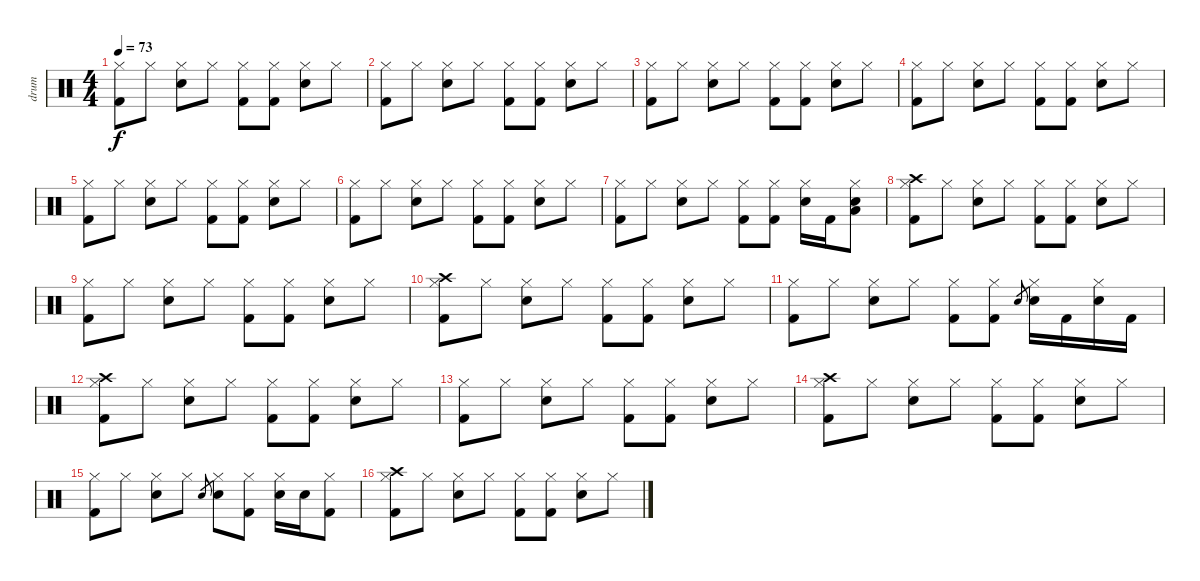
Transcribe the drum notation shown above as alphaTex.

\track ("drum" "drum") {instrument percussion}
\staff {score}
\articulation defaults
\ts (4 4)
\tempo 73
\clef neutral
\ks c
("Hi-Hat (closed)" "Kick (hit) 2").8{dy f} "Hi-Hat (closed)".8 ("Hi-Hat (closed)" "Electric Snare (hit)").8 "Hi-Hat (closed)".8 ("Hi-Hat (closed)" "Kick (hit) 2").8 ("Hi-Hat (closed)" "Kick (hit) 2").8 ("Hi-Hat (closed)" "Electric Snare (hit)").8 "Hi-Hat (closed)".8 |
("Hi-Hat (closed)" "Kick (hit) 2").8 "Hi-Hat (closed)".8 ("Hi-Hat (closed)" "Electric Snare (hit)").8 "Hi-Hat (closed)".8 ("Hi-Hat (closed)" "Kick (hit) 2").8 ("Hi-Hat (closed)" "Kick (hit) 2").8 ("Hi-Hat (closed)" "Electric Snare (hit)").8 "Hi-Hat (closed)".8 |
("Hi-Hat (closed)" "Kick (hit) 2").8 "Hi-Hat (closed)".8 ("Hi-Hat (closed)" "Electric Snare (hit)").8 "Hi-Hat (closed)".8 ("Hi-Hat (closed)" "Kick (hit) 2").8 ("Hi-Hat (closed)" "Kick (hit) 2").8 ("Hi-Hat (closed)" "Electric Snare (hit)").8 "Hi-Hat (closed)".8 |
("Hi-Hat (closed)" "Kick (hit) 2").8 "Hi-Hat (closed)".8 ("Hi-Hat (closed)" "Electric Snare (hit)").8 "Hi-Hat (closed)".8 ("Hi-Hat (closed)" "Kick (hit) 2").8 ("Hi-Hat (closed)" "Kick (hit) 2").8 ("Hi-Hat (closed)" "Electric Snare (hit)").8 "Hi-Hat (closed)".8 |
("Hi-Hat (closed)" "Kick (hit) 2").8 "Hi-Hat (closed)".8 ("Hi-Hat (closed)" "Electric Snare (hit)").8 "Hi-Hat (closed)".8 ("Hi-Hat (closed)" "Kick (hit) 2").8 ("Hi-Hat (closed)" "Kick (hit) 2").8 ("Hi-Hat (closed)" "Electric Snare (hit)").8 "Hi-Hat (closed)".8 |
("Hi-Hat (closed)" "Kick (hit) 2").8 "Hi-Hat (closed)".8 ("Hi-Hat (closed)" "Electric Snare (hit)").8 "Hi-Hat (closed)".8 ("Hi-Hat (closed)" "Kick (hit) 2").8 ("Hi-Hat (closed)" "Kick (hit) 2").8 ("Hi-Hat (closed)" "Electric Snare (hit)").8 "Hi-Hat (closed)".8 |
("Hi-Hat (closed)" "Kick (hit) 2").8 "Hi-Hat (closed)".8 ("Hi-Hat (closed)" "Electric Snare (hit)").8 "Hi-Hat (closed)".8 ("Hi-Hat (closed)" "Kick (hit) 2").8 ("Hi-Hat (closed)" "Kick (hit) 2").8 ("Hi-Hat (closed)" "Electric Snare (hit)").16 "Kick (hit) 2".16 ("Hi-Hat (closed)" "Low Floor Tom (hit)" "Electric Snare (hit)").8 |
("Crash high (hit)" "Hi-Hat (closed)" "Kick (hit) 2").8 "Hi-Hat (closed)".8 ("Hi-Hat (closed)" "Electric Snare (hit)").8 "Hi-Hat (closed)".8 ("Hi-Hat (closed)" "Kick (hit) 2").8 ("Hi-Hat (closed)" "Kick (hit) 2").8 ("Hi-Hat (closed)" "Electric Snare (hit)").8 "Hi-Hat (closed)".8 |
("Hi-Hat (closed)" "Kick (hit) 2").8 "Hi-Hat (closed)".8 ("Hi-Hat (closed)" "Electric Snare (hit)").8 "Hi-Hat (closed)".8 ("Hi-Hat (closed)" "Kick (hit) 2").8 ("Hi-Hat (closed)" "Kick (hit) 2").8 ("Hi-Hat (closed)" "Electric Snare (hit)").8 "Hi-Hat (closed)".8 |
("Crash high (hit)" "Hi-Hat (closed)" "Kick (hit) 2").8 "Hi-Hat (closed)".8 ("Hi-Hat (closed)" "Electric Snare (hit)").8 "Hi-Hat (closed)".8 ("Hi-Hat (closed)" "Kick (hit) 2").8 ("Hi-Hat (closed)" "Kick (hit) 2").8 ("Hi-Hat (closed)" "Electric Snare (hit)").8 "Hi-Hat (closed)".8 |
("Hi-Hat (closed)" "Kick (hit) 2").8 "Hi-Hat (closed)".8 ("Hi-Hat (closed)" "Electric Snare (hit)").8 "Hi-Hat (closed)".8 ("Hi-Hat (closed)" "Kick (hit) 2").8 ("Hi-Hat (closed)" "Kick (hit) 2").8 "Electric Snare (hit)".8{gr} ("Hi-Hat (closed)" "Electric Snare (hit)").16 "Kick (hit) 2".16 ("Hi-Hat (closed)" "Electric Snare (hit)").16 "Kick (hit) 2".16 |
("Crash high (hit)" "Hi-Hat (closed)" "Kick (hit) 2").8 "Hi-Hat (closed)".8 ("Hi-Hat (closed)" "Electric Snare (hit)").8 "Hi-Hat (closed)".8 ("Hi-Hat (closed)" "Kick (hit) 2").8 ("Hi-Hat (closed)" "Kick (hit) 2").8 ("Hi-Hat (closed)" "Electric Snare (hit)").8 "Hi-Hat (closed)".8 |
("Hi-Hat (closed)" "Kick (hit) 2").8 "Hi-Hat (closed)".8 ("Hi-Hat (closed)" "Electric Snare (hit)").8 "Hi-Hat (closed)".8 ("Hi-Hat (closed)" "Kick (hit) 2").8 ("Hi-Hat (closed)" "Kick (hit) 2").8 ("Hi-Hat (closed)" "Electric Snare (hit)").8 "Hi-Hat (closed)".8 |
("Crash high (hit)" "Hi-Hat (closed)" "Kick (hit) 2").8 "Hi-Hat (closed)".8 ("Hi-Hat (closed)" "Electric Snare (hit)").8 "Hi-Hat (closed)".8 ("Hi-Hat (closed)" "Kick (hit) 2").8 ("Hi-Hat (closed)" "Kick (hit) 2").8 ("Hi-Hat (closed)" "Electric Snare (hit)").8 "Hi-Hat (closed)".8 |
("Hi-Hat (closed)" "Kick (hit) 2").8 "Hi-Hat (closed)".8 ("Hi-Hat (closed)" "Electric Snare (hit)").8 "Hi-Hat (closed)".8 "Electric Snare (hit)".8{gr} ("Hi-Hat (closed)" "Electric Snare (hit)").8 ("Hi-Hat (closed)" "Kick (hit) 2").8 ("Hi-Hat (closed)" "Electric Snare (hit)").16 "Electric Snare (hit)".16 ("Hi-Hat (closed)" "Kick (hit) 2").8 |
("Crash high (hit)" "Hi-Hat (closed)" "Kick (hit) 2").8 "Hi-Hat (closed)".8 ("Hi-Hat (closed)" "Electric Snare (hit)").8 "Hi-Hat (closed)".8 ("Hi-Hat (closed)" "Kick (hit) 2").8 ("Hi-Hat (closed)" "Kick (hit) 2").8 ("Hi-Hat (closed)" "Electric Snare (hit)").8 "Hi-Hat (closed)".8
